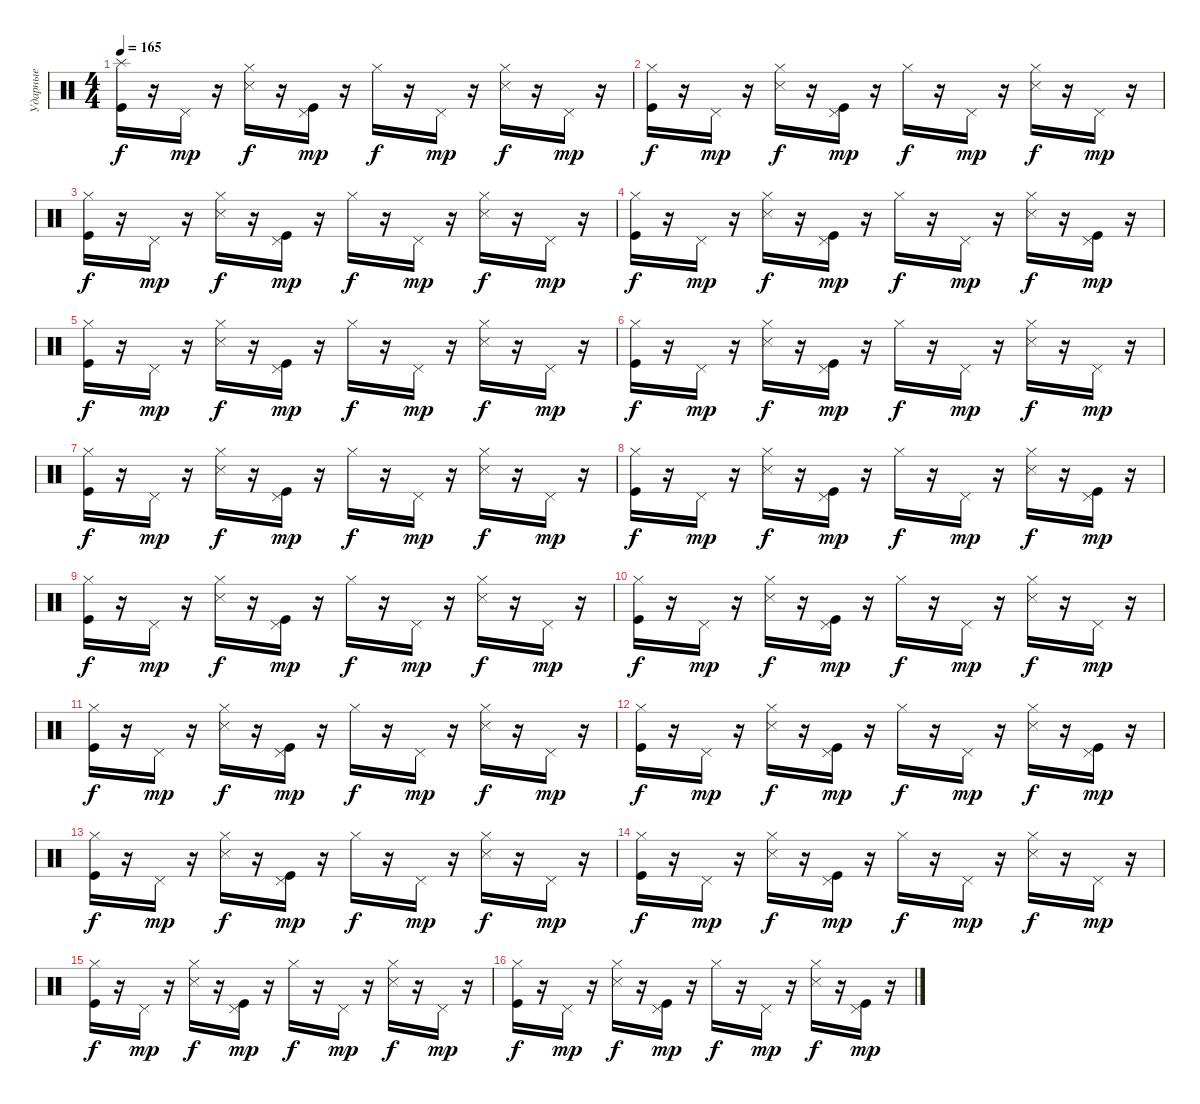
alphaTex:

\track ("Ударные" "Ударные") {instrument percussion}
\staff {score}
\articulation defaults
\ts (4 4)
\tempo 165
\clef neutral
\ks c
("Kick (hit)" "Splash (hit)").16{dy f} r.16 "Pedal Hi-Hat (hit)".16{dy mp} r.16 ("Snare (side stick) 3" "Hi-Hat (closed)").16{dy f} r.16 ("Pedal Hi-Hat (hit)" "Kick (hit)").16{dy mp} r.16 "Hi-Hat (closed)".16{dy f} r.16 "Pedal Hi-Hat (hit)".16{dy mp} r.16 ("Snare (side stick) 3" "Hi-Hat (closed)").16{dy f} r.16 "Pedal Hi-Hat (hit)".16{dy mp} r.16 |
("Kick (hit)" "Hi-Hat (closed)").16{dy f} r.16 "Pedal Hi-Hat (hit)".16{dy mp} r.16 ("Hi-Hat (closed)" "Snare (side stick) 3").16{dy f} r.16 ("Kick (hit)" "Pedal Hi-Hat (hit)").16{dy mp} r.16 "Hi-Hat (closed)".16{dy f} r.16 "Pedal Hi-Hat (hit)".16{dy mp} r.16 ("Hi-Hat (closed)" "Snare (side stick) 3").16{dy f} r.16 "Pedal Hi-Hat (hit)".16{dy mp} r.16 |
("Hi-Hat (closed)" "Kick (hit)").16{dy f} r.16 "Pedal Hi-Hat (hit)".16{dy mp} r.16 ("Snare (side stick) 3" "Hi-Hat (closed)").16{dy f} r.16 ("Kick (hit)" "Pedal Hi-Hat (hit)").16{dy mp} r.16 "Hi-Hat (closed)".16{dy f} r.16 "Pedal Hi-Hat (hit)".16{dy mp} r.16 ("Snare (side stick) 3" "Hi-Hat (closed)").16{dy f} r.16 "Pedal Hi-Hat (hit)".16{dy mp} r.16 |
("Hi-Hat (closed)" "Kick (hit)").16{dy f} r.16 "Pedal Hi-Hat (hit)".16{dy mp} r.16 ("Hi-Hat (closed)" "Snare (side stick) 3").16{dy f} r.16 ("Pedal Hi-Hat (hit)" "Kick (hit)").16{dy mp} r.16 "Hi-Hat (closed)".16{dy f} r.16 "Pedal Hi-Hat (hit)".16{dy mp} r.16 ("Hi-Hat (closed)" "Snare (side stick) 3").16{dy f} r.16 ("Pedal Hi-Hat (hit)" "Kick (hit)").16{dy mp} r.16 |
("Hi-Hat (closed)" "Kick (hit)").16{dy f} r.16 "Pedal Hi-Hat (hit)".16{dy mp} r.16 ("Hi-Hat (closed)" "Snare (side stick) 3").16{dy f} r.16 ("Pedal Hi-Hat (hit)" "Kick (hit)").16{dy mp} r.16 "Hi-Hat (closed)".16{dy f} r.16 "Pedal Hi-Hat (hit)".16{dy mp} r.16 ("Snare (side stick) 3" "Hi-Hat (closed)").16{dy f} r.16 "Pedal Hi-Hat (hit)".16{dy mp} r.16 |
("Kick (hit)" "Hi-Hat (closed)").16{dy f} r.16 "Pedal Hi-Hat (hit)".16{dy mp} r.16 ("Hi-Hat (closed)" "Snare (side stick) 3").16{dy f} r.16 ("Pedal Hi-Hat (hit)" "Kick (hit)").16{dy mp} r.16 "Hi-Hat (closed)".16{dy f} r.16 "Pedal Hi-Hat (hit)".16{dy mp} r.16 ("Snare (side stick) 3" "Hi-Hat (closed)").16{dy f} r.16 "Pedal Hi-Hat (hit)".16{dy mp} r.16 |
("Kick (hit)" "Hi-Hat (closed)").16{dy f} r.16 "Pedal Hi-Hat (hit)".16{dy mp} r.16 ("Hi-Hat (closed)" "Snare (side stick) 3").16{dy f} r.16 ("Pedal Hi-Hat (hit)" "Kick (hit)").16{dy mp} r.16 "Hi-Hat (closed)".16{dy f} r.16 "Pedal Hi-Hat (hit)".16{dy mp} r.16 ("Hi-Hat (closed)" "Snare (side stick) 3").16{dy f} r.16 "Pedal Hi-Hat (hit)".16{dy mp} r.16 |
("Hi-Hat (closed)" "Kick (hit)").16{dy f} r.16 "Pedal Hi-Hat (hit)".16{dy mp} r.16 ("Snare (side stick) 3" "Hi-Hat (closed)").16{dy f} r.16 ("Pedal Hi-Hat (hit)" "Kick (hit)").16{dy mp} r.16 "Hi-Hat (closed)".16{dy f} r.16 "Pedal Hi-Hat (hit)".16{dy mp} r.16 ("Snare (side stick) 3" "Hi-Hat (closed)").16{dy f} r.16 ("Pedal Hi-Hat (hit)" "Kick (hit)").16{dy mp} r.16 |
("Hi-Hat (closed)" "Kick (hit)").16{dy f} r.16 "Pedal Hi-Hat (hit)".16{dy mp} r.16 ("Snare (side stick) 3" "Hi-Hat (closed)").16{dy f} r.16 ("Pedal Hi-Hat (hit)" "Kick (hit)").16{dy mp} r.16 "Hi-Hat (closed)".16{dy f} r.16 "Pedal Hi-Hat (hit)".16{dy mp} r.16 ("Hi-Hat (closed)" "Snare (side stick) 3").16{dy f} r.16 "Pedal Hi-Hat (hit)".16{dy mp} r.16 |
("Kick (hit)" "Hi-Hat (closed)").16{dy f} r.16 "Pedal Hi-Hat (hit)".16{dy mp} r.16 ("Snare (side stick) 3" "Hi-Hat (closed)").16{dy f} r.16 ("Kick (hit)" "Pedal Hi-Hat (hit)").16{dy mp} r.16 "Hi-Hat (closed)".16{dy f} r.16 "Pedal Hi-Hat (hit)".16{dy mp} r.16 ("Hi-Hat (closed)" "Snare (side stick) 3").16{dy f} r.16 "Pedal Hi-Hat (hit)".16{dy mp} r.16 |
("Hi-Hat (closed)" "Kick (hit)").16{dy f} r.16 "Pedal Hi-Hat (hit)".16{dy mp} r.16 ("Hi-Hat (closed)" "Snare (side stick) 3").16{dy f} r.16 ("Kick (hit)" "Pedal Hi-Hat (hit)").16{dy mp} r.16 "Hi-Hat (closed)".16{dy f} r.16 "Pedal Hi-Hat (hit)".16{dy mp} r.16 ("Hi-Hat (closed)" "Snare (side stick) 3").16{dy f} r.16 "Pedal Hi-Hat (hit)".16{dy mp} r.16 |
("Hi-Hat (closed)" "Kick (hit)").16{dy f} r.16 "Pedal Hi-Hat (hit)".16{dy mp} r.16 ("Snare (side stick) 3" "Hi-Hat (closed)").16{dy f} r.16 ("Pedal Hi-Hat (hit)" "Kick (hit)").16{dy mp} r.16 "Hi-Hat (closed)".16{dy f} r.16 "Pedal Hi-Hat (hit)".16{dy mp} r.16 ("Snare (side stick) 3" "Hi-Hat (closed)").16{dy f} r.16 ("Kick (hit)" "Pedal Hi-Hat (hit)").16{dy mp} r.16 |
("Hi-Hat (closed)" "Kick (hit)").16{dy f} r.16 "Pedal Hi-Hat (hit)".16{dy mp} r.16 ("Snare (side stick) 3" "Hi-Hat (closed)").16{dy f} r.16 ("Kick (hit)" "Pedal Hi-Hat (hit)").16{dy mp} r.16 "Hi-Hat (closed)".16{dy f} r.16 "Pedal Hi-Hat (hit)".16{dy mp} r.16 ("Hi-Hat (closed)" "Snare (side stick) 3").16{dy f} r.16 "Pedal Hi-Hat (hit)".16{dy mp} r.16 |
("Hi-Hat (closed)" "Kick (hit)").16{dy f} r.16 "Pedal Hi-Hat (hit)".16{dy mp} r.16 ("Hi-Hat (closed)" "Snare (side stick) 3").16{dy f} r.16 ("Kick (hit)" "Pedal Hi-Hat (hit)").16{dy mp} r.16 "Hi-Hat (closed)".16{dy f} r.16 "Pedal Hi-Hat (hit)".16{dy mp} r.16 ("Hi-Hat (closed)" "Snare (side stick) 3").16{dy f} r.16 "Pedal Hi-Hat (hit)".16{dy mp} r.16 |
("Kick (hit)" "Hi-Hat (closed)").16{dy f} r.16 "Pedal Hi-Hat (hit)".16{dy mp} r.16 ("Snare (side stick) 3" "Hi-Hat (closed)").16{dy f} r.16 ("Pedal Hi-Hat (hit)" "Kick (hit)").16{dy mp} r.16 "Hi-Hat (closed)".16{dy f} r.16 "Pedal Hi-Hat (hit)".16{dy mp} r.16 ("Snare (side stick) 3" "Hi-Hat (closed)").16{dy f} r.16 "Pedal Hi-Hat (hit)".16{dy mp} r.16 |
("Hi-Hat (closed)" "Kick (hit)").16{dy f} r.16 "Pedal Hi-Hat (hit)".16{dy mp} r.16 ("Snare (side stick) 3" "Hi-Hat (closed)").16{dy f} r.16 ("Kick (hit)" "Pedal Hi-Hat (hit)").16{dy mp} r.16 "Hi-Hat (closed)".16{dy f} r.16 "Pedal Hi-Hat (hit)".16{dy mp} r.16 ("Snare (side stick) 3" "Hi-Hat (closed)").16{dy f} r.16 ("Kick (hit)" "Pedal Hi-Hat (hit)").16{dy mp} r.16
